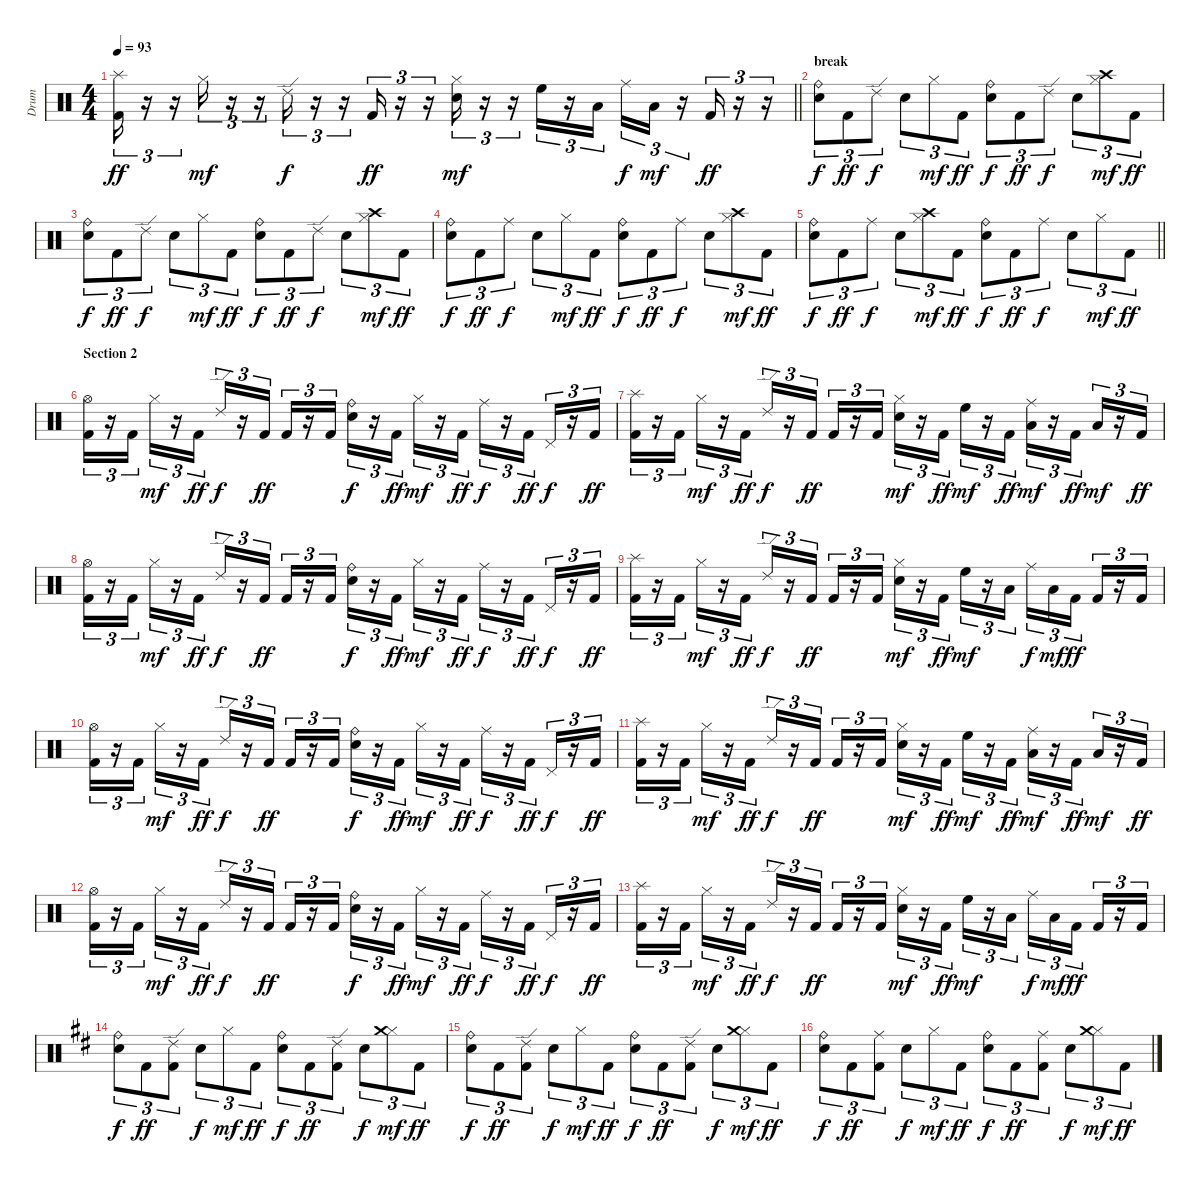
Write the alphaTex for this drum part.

\track ("Drum" "Drum") {instrument percussion}
\staff {score}
\articulation defaults
\ts (4 4)
\tempo 93
\clef neutral
\barLineRight lightlight
\ks c
("Kick (hit) 2" "Splash (hit)").16{tu (3 2) dy ff} r.16{tu (3 2)} r.16{tu (3 2)} "Hi-Hat (closed)".16{tu (3 2) dy mf} r.16{tu (3 2)} r.16{tu (3 2)} "Ride (edge) 2".16{tu (3 2) dy f} r.16{tu (3 2)} r.16{tu (3 2)} "Kick (hit) 2".16{tu (3 2) dy ff} r.16{tu (3 2)} r.16{tu (3 2)} ("Electric Snare (hit)" "Hi-Hat (closed)").16{tu (3 2) dy mf} r.16{tu (3 2)} r.16{tu (3 2)} "High Floor Tom (hit)".16{tu (3 2)} r.16{tu (3 2)} "Low Tom (hit)".16{tu (3 2)} "Ride (middle)".16{tu (3 2) dy f} "Low Floor Tom (hit)".16{tu (3 2) dy mf} r.16{tu (3 2)} "Kick (hit) 2".16{tu (3 2) dy ff} r.16{tu (3 2)} r.16{tu (3 2)} |
\section ("" "break")
("Electric Snare (hit)" "Ride (bell)").8{tu (3 2) dy f} "Kick (hit) 2".8{tu (3 2) dy ff} "Ride (edge) 2".8{tu (3 2) dy f} "Electric Snare (hit)".8{tu (3 2)} "Hi-Hat (closed)".8{tu (3 2) dy mf} "Kick (hit) 2".8{tu (3 2) dy ff} ("Electric Snare (hit)" "Ride (bell)").8{tu (3 2) dy f} "Kick (hit) 2".8{tu (3 2) dy ff} "Ride (edge) 2".8{tu (3 2) dy f} "Electric Snare (hit)".8{tu (3 2)} ("Hi-Hat (closed)" "Crash high (hit)").8{tu (3 2) dy mf} "Kick (hit) 2".8{tu (3 2) dy ff} |
("Electric Snare (hit)" "Ride (bell)").8{tu (3 2) dy f} "Kick (hit) 2".8{tu (3 2) dy ff} "Ride (edge) 2".8{tu (3 2) dy f} "Electric Snare (hit)".8{tu (3 2)} "Hi-Hat (closed)".8{tu (3 2) dy mf} "Kick (hit) 2".8{tu (3 2) dy ff} ("Electric Snare (hit)" "Ride (bell)").8{tu (3 2) dy f} "Kick (hit) 2".8{tu (3 2) dy ff} "Ride (edge) 2".8{tu (3 2) dy f} "Electric Snare (hit)".8{tu (3 2)} ("Hi-Hat (closed)" "Crash high (hit)").8{tu (3 2) dy mf} "Kick (hit) 2".8{tu (3 2) dy ff} |
("Electric Snare (hit)" "Ride (bell)").8{tu (3 2) dy f} "Kick (hit) 2".8{tu (3 2) dy ff} "Ride (middle)".8{tu (3 2) dy f} "Electric Snare (hit)".8{tu (3 2)} "Hi-Hat (closed)".8{tu (3 2) dy mf} "Kick (hit) 2".8{tu (3 2) dy ff} ("Electric Snare (hit)" "Ride (bell)").8{tu (3 2) dy f} "Kick (hit) 2".8{tu (3 2) dy ff} "Ride (middle)".8{tu (3 2) dy f} "Electric Snare (hit)".8{tu (3 2)} ("Hi-Hat (closed)" "Crash high (hit)").8{tu (3 2) dy mf} "Kick (hit) 2".8{tu (3 2) dy ff} |
\barLineRight lightlight
("Electric Snare (hit)" "Ride (bell)").8{tu (3 2) dy f} "Kick (hit) 2".8{tu (3 2) dy ff} "Ride (middle)".8{tu (3 2) dy f} "Electric Snare (hit)".8{tu (3 2)} ("Hi-Hat (closed)" "Crash high (hit)").8{tu (3 2) dy mf} "Kick (hit) 2".8{tu (3 2) dy ff} ("Electric Snare (hit)" "Ride (bell)").8{tu (3 2) dy f} "Kick (hit) 2".8{tu (3 2) dy ff} "Ride (middle)".8{tu (3 2) dy f} "Electric Snare (hit)".8{tu (3 2)} "Hi-Hat (closed)".8{tu (3 2) dy mf} "Kick (hit) 2".8{tu (3 2) dy ff} |
\section ("" "Section 2")
("Kick (hit) 2" "Hi-Hat (open)").16{tu (3 2)} r.16{tu (3 2)} "Kick (hit) 2".16{tu (3 2)} "Hi-Hat (closed)".16{tu (3 2) dy mf} r.16{tu (3 2)} "Kick (hit) 2".16{tu (3 2) dy ff} "Ride (edge) 2".16{tu (3 2) dy f} r.16{tu (3 2)} "Kick (hit) 2".16{tu (3 2) dy ff} "Kick (hit) 2".16{tu (3 2)} r.16{tu (3 2)} "Kick (hit) 2".16{tu (3 2)} ("Electric Snare (hit)" "Ride (bell)").16{tu (3 2) dy f} r.16{tu (3 2)} "Kick (hit) 2".16{tu (3 2) dy ff} "Hi-Hat (closed)".16{tu (3 2) dy mf} r.16{tu (3 2)} "Kick (hit) 2".16{tu (3 2) dy ff} "Ride (middle)".16{tu (3 2) dy f} r.16{tu (3 2)} "Kick (hit) 2".16{tu (3 2) dy ff} "Pedal Hi-Hat (hit)".16{tu (3 2) dy f} r.16{tu (3 2)} "Kick (hit) 2".16{tu (3 2) dy ff} |
("Kick (hit) 2" "Splash (hit)").16{tu (3 2)} r.16{tu (3 2)} "Kick (hit) 2".16{tu (3 2)} "Hi-Hat (closed)".16{tu (3 2) dy mf} r.16{tu (3 2)} "Kick (hit) 2".16{tu (3 2) dy ff} "Ride (edge) 2".16{tu (3 2) dy f} r.16{tu (3 2)} "Kick (hit) 2".16{tu (3 2) dy ff} "Kick (hit) 2".16{tu (3 2)} r.16{tu (3 2)} "Kick (hit) 2".16{tu (3 2)} ("Electric Snare (hit)" "Hi-Hat (closed)").16{tu (3 2) dy mf} r.16{tu (3 2)} "Kick (hit) 2".16{tu (3 2) dy ff} "High Floor Tom (hit)".16{tu (3 2) dy mf} r.16{tu (3 2)} "Kick (hit) 2".16{tu (3 2) dy ff} ("Low Tom (hit)" "Ride (middle)").16{tu (3 2) dy mf} r.16{tu (3 2)} "Kick (hit) 2".16{tu (3 2) dy ff} "Low Floor Tom (hit)".16{tu (3 2) dy mf} r.16{tu (3 2)} "Kick (hit) 2".16{tu (3 2) dy ff} |
("Kick (hit) 2" "Hi-Hat (open)").16{tu (3 2)} r.16{tu (3 2)} "Kick (hit) 2".16{tu (3 2)} "Hi-Hat (closed)".16{tu (3 2) dy mf} r.16{tu (3 2)} "Kick (hit) 2".16{tu (3 2) dy ff} "Ride (edge) 2".16{tu (3 2) dy f} r.16{tu (3 2)} "Kick (hit) 2".16{tu (3 2) dy ff} "Kick (hit) 2".16{tu (3 2)} r.16{tu (3 2)} "Kick (hit) 2".16{tu (3 2)} ("Electric Snare (hit)" "Ride (bell)").16{tu (3 2) dy f} r.16{tu (3 2)} "Kick (hit) 2".16{tu (3 2) dy ff} "Hi-Hat (closed)".16{tu (3 2) dy mf} r.16{tu (3 2)} "Kick (hit) 2".16{tu (3 2) dy ff} "Ride (middle)".16{tu (3 2) dy f} r.16{tu (3 2)} "Kick (hit) 2".16{tu (3 2) dy ff} "Pedal Hi-Hat (hit)".16{tu (3 2) dy f} r.16{tu (3 2)} "Kick (hit) 2".16{tu (3 2) dy ff} |
("Kick (hit) 2" "Splash (hit)").16{tu (3 2)} r.16{tu (3 2)} "Kick (hit) 2".16{tu (3 2)} "Hi-Hat (closed)".16{tu (3 2) dy mf} r.16{tu (3 2)} "Kick (hit) 2".16{tu (3 2) dy ff} "Ride (edge) 2".16{tu (3 2) dy f} r.16{tu (3 2)} "Kick (hit) 2".16{tu (3 2) dy ff} "Kick (hit) 2".16{tu (3 2)} r.16{tu (3 2)} "Kick (hit) 2".16{tu (3 2)} ("Electric Snare (hit)" "Hi-Hat (closed)").16{tu (3 2) dy mf} r.16{tu (3 2)} "Kick (hit) 2".16{tu (3 2) dy ff} "High Floor Tom (hit)".16{tu (3 2) dy mf} r.16{tu (3 2)} "Low Tom (hit)".16{tu (3 2)} "Ride (middle)".16{tu (3 2) dy f} "Low Floor Tom (hit)".16{tu (3 2) dy mf} "Kick (hit) 2".16{tu (3 2) dy ff beam splitsecondary} "Kick (hit) 2".16{tu (3 2)} r.16{tu (3 2)} "Kick (hit) 2".16{tu (3 2)} |
("Kick (hit) 2" "Hi-Hat (open)").16{tu (3 2)} r.16{tu (3 2)} "Kick (hit) 2".16{tu (3 2)} "Hi-Hat (closed)".16{tu (3 2) dy mf} r.16{tu (3 2)} "Kick (hit) 2".16{tu (3 2) dy ff} "Ride (edge) 2".16{tu (3 2) dy f} r.16{tu (3 2)} "Kick (hit) 2".16{tu (3 2) dy ff} "Kick (hit) 2".16{tu (3 2)} r.16{tu (3 2)} "Kick (hit) 2".16{tu (3 2)} ("Electric Snare (hit)" "Ride (bell)").16{tu (3 2) dy f} r.16{tu (3 2)} "Kick (hit) 2".16{tu (3 2) dy ff} "Hi-Hat (closed)".16{tu (3 2) dy mf} r.16{tu (3 2)} "Kick (hit) 2".16{tu (3 2) dy ff} "Ride (middle)".16{tu (3 2) dy f} r.16{tu (3 2)} "Kick (hit) 2".16{tu (3 2) dy ff} "Pedal Hi-Hat (hit)".16{tu (3 2) dy f} r.16{tu (3 2)} "Kick (hit) 2".16{tu (3 2) dy ff} |
("Kick (hit) 2" "Splash (hit)").16{tu (3 2)} r.16{tu (3 2)} "Kick (hit) 2".16{tu (3 2)} "Hi-Hat (closed)".16{tu (3 2) dy mf} r.16{tu (3 2)} "Kick (hit) 2".16{tu (3 2) dy ff} "Ride (edge) 2".16{tu (3 2) dy f} r.16{tu (3 2)} "Kick (hit) 2".16{tu (3 2) dy ff} "Kick (hit) 2".16{tu (3 2)} r.16{tu (3 2)} "Kick (hit) 2".16{tu (3 2)} ("Electric Snare (hit)" "Hi-Hat (closed)").16{tu (3 2) dy mf} r.16{tu (3 2)} "Kick (hit) 2".16{tu (3 2) dy ff} "High Floor Tom (hit)".16{tu (3 2) dy mf} r.16{tu (3 2)} "Kick (hit) 2".16{tu (3 2) dy ff} ("Low Tom (hit)" "Ride (middle)").16{tu (3 2) dy mf} r.16{tu (3 2)} "Kick (hit) 2".16{tu (3 2) dy ff} "Low Floor Tom (hit)".16{tu (3 2) dy mf} r.16{tu (3 2)} "Kick (hit) 2".16{tu (3 2) dy ff} |
("Kick (hit) 2" "Hi-Hat (open)").16{tu (3 2)} r.16{tu (3 2)} "Kick (hit) 2".16{tu (3 2)} "Hi-Hat (closed)".16{tu (3 2) dy mf} r.16{tu (3 2)} "Kick (hit) 2".16{tu (3 2) dy ff} "Ride (edge) 2".16{tu (3 2) dy f} r.16{tu (3 2)} "Kick (hit) 2".16{tu (3 2) dy ff} "Kick (hit) 2".16{tu (3 2)} r.16{tu (3 2)} "Kick (hit) 2".16{tu (3 2)} ("Electric Snare (hit)" "Ride (bell)").16{tu (3 2) dy f} r.16{tu (3 2)} "Kick (hit) 2".16{tu (3 2) dy ff} "Hi-Hat (closed)".16{tu (3 2) dy mf} r.16{tu (3 2)} "Kick (hit) 2".16{tu (3 2) dy ff} "Ride (middle)".16{tu (3 2) dy f} r.16{tu (3 2)} "Kick (hit) 2".16{tu (3 2) dy ff} "Pedal Hi-Hat (hit)".16{tu (3 2) dy f} r.16{tu (3 2)} "Kick (hit) 2".16{tu (3 2) dy ff} |
("Kick (hit) 2" "Splash (hit)").16{tu (3 2)} r.16{tu (3 2)} "Kick (hit) 2".16{tu (3 2)} "Hi-Hat (closed)".16{tu (3 2) dy mf} r.16{tu (3 2)} "Kick (hit) 2".16{tu (3 2) dy ff} "Ride (edge) 2".16{tu (3 2) dy f} r.16{tu (3 2)} "Kick (hit) 2".16{tu (3 2) dy ff} "Kick (hit) 2".16{tu (3 2)} r.16{tu (3 2)} "Kick (hit) 2".16{tu (3 2)} ("Electric Snare (hit)" "Hi-Hat (closed)").16{tu (3 2) dy mf} r.16{tu (3 2)} "Kick (hit) 2".16{tu (3 2) dy ff} "High Floor Tom (hit)".16{tu (3 2) dy mf} r.16{tu (3 2)} "Low Tom (hit)".16{tu (3 2)} "Ride (middle)".16{tu (3 2) dy f} "Low Floor Tom (hit)".16{tu (3 2) dy mf} "Kick (hit) 2".16{tu (3 2) dy ff beam splitsecondary} "Kick (hit) 2".16{tu (3 2)} r.16{tu (3 2)} "Kick (hit) 2".16{tu (3 2)} |
\ks d
("Electric Snare (hit)" "Ride (bell)").8{tu (3 2) dy f} "Kick (hit) 2".8{tu (3 2) dy ff} ("Kick (hit) 2" "Ride (edge) 2").8{tu (3 2)} "Electric Snare (hit)".8{tu (3 2) dy f} "Hi-Hat (closed)".8{tu (3 2) dy mf} "Kick (hit) 2".8{tu (3 2) dy ff} ("Electric Snare (hit)" "Ride (bell)").8{tu (3 2) dy f} "Kick (hit) 2".8{tu (3 2) dy ff} ("Kick (hit) 2" "Ride (edge) 2").8{tu (3 2)} "Electric Snare (hit)".8{tu (3 2) dy f} ("Hi-Hat (closed)" "Crash medium (hit)").8{tu (3 2) dy mf} "Kick (hit) 2".8{tu (3 2) dy ff} |
("Electric Snare (hit)" "Ride (bell)").8{tu (3 2) dy f} "Kick (hit) 2".8{tu (3 2) dy ff} ("Kick (hit) 2" "Ride (edge) 2").8{tu (3 2)} "Electric Snare (hit)".8{tu (3 2) dy f} "Hi-Hat (closed)".8{tu (3 2) dy mf} "Kick (hit) 2".8{tu (3 2) dy ff} ("Electric Snare (hit)" "Ride (bell)").8{tu (3 2) dy f} "Kick (hit) 2".8{tu (3 2) dy ff} ("Kick (hit) 2" "Ride (edge) 2").8{tu (3 2)} "Electric Snare (hit)".8{tu (3 2) dy f} ("Hi-Hat (closed)" "Crash medium (hit)").8{tu (3 2) dy mf} "Kick (hit) 2".8{tu (3 2) dy ff} |
("Electric Snare (hit)" "Ride (bell)").8{tu (3 2) dy f} "Kick (hit) 2".8{tu (3 2) dy ff} ("Kick (hit) 2" "Ride (middle)").8{tu (3 2)} "Electric Snare (hit)".8{tu (3 2) dy f} "Hi-Hat (closed)".8{tu (3 2) dy mf} "Kick (hit) 2".8{tu (3 2) dy ff} ("Electric Snare (hit)" "Ride (bell)").8{tu (3 2) dy f} "Kick (hit) 2".8{tu (3 2) dy ff} ("Kick (hit) 2" "Ride (middle)").8{tu (3 2)} "Electric Snare (hit)".8{tu (3 2) dy f} ("Hi-Hat (closed)" "Crash medium (hit)").8{tu (3 2) dy mf} "Kick (hit) 2".8{tu (3 2) dy ff}
